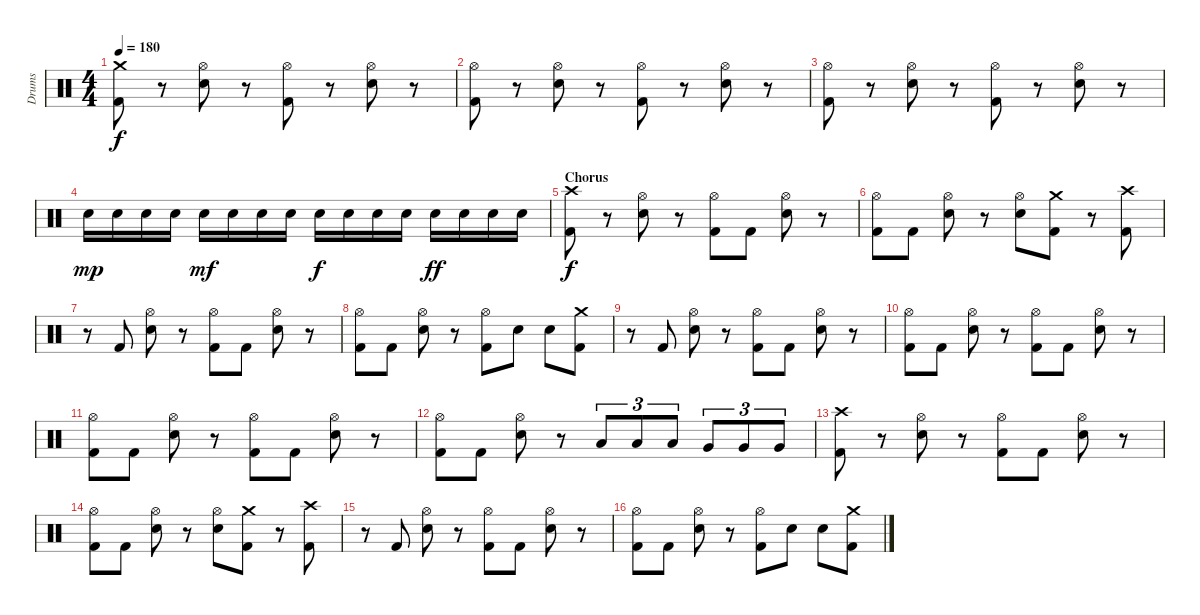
\track ("Drums" "Drums") {instrument percussion}
\staff {score}
\articulation defaults
\ts (4 4)
\tempo 180
\clef neutral
\ks c
("Crash medium (hit)" "Kick (hit) 2").8{dy f} r.8 ("Hi-Hat (open)" "Snare (hit) 2").8 r.8 ("Hi-Hat (open)" "Kick (hit) 2").8 r.8 ("Hi-Hat (open)" "Snare (hit) 2").8 r.8 |
("Hi-Hat (open)" "Kick (hit) 2").8 r.8 ("Hi-Hat (open)" "Snare (hit) 2").8 r.8 ("Hi-Hat (open)" "Kick (hit) 2").8 r.8 ("Hi-Hat (open)" "Snare (hit) 2").8 r.8 |
("Hi-Hat (open)" "Kick (hit) 2").8 r.8 ("Hi-Hat (open)" "Snare (hit) 2").8 r.8 ("Hi-Hat (open)" "Kick (hit) 2").8 r.8 ("Hi-Hat (open)" "Snare (hit) 2").8 r.8 |
"Snare (hit) 2".16{dy mp} "Snare (hit) 2".16 "Snare (hit) 2".16 "Snare (hit) 2".16 "Snare (hit) 2".16{dy mf} "Snare (hit) 2".16 "Snare (hit) 2".16 "Snare (hit) 2".16 "Snare (hit) 2".16{dy f} "Snare (hit) 2".16 "Snare (hit) 2".16 "Snare (hit) 2".16 "Snare (hit) 2".16{dy ff} "Snare (hit) 2".16 "Snare (hit) 2".16 "Snare (hit) 2".16 |
\section ("" "Chorus")
("Crash high (hit)" "Kick (hit) 2").8{dy f} r.8 ("Hi-Hat (open)" "Snare (hit) 2").8 r.8 ("Hi-Hat (open)" "Kick (hit) 2").8 "Kick (hit) 2".8 ("Hi-Hat (open)" "Snare (hit) 2").8 r.8 |
("Hi-Hat (open)" "Kick (hit) 2").8 "Kick (hit) 2".8 ("Hi-Hat (open)" "Snare (hit) 2").8 r.8 ("Hi-Hat (open)" "Snare (hit) 2").8 ("Crash medium (hit)" "Kick (hit) 2").8 r.8 ("Crash high (hit)" "Kick (hit) 2").8 |
r.8 "Kick (hit) 2".8 ("Hi-Hat (open)" "Snare (hit) 2").8 r.8 ("Hi-Hat (open)" "Kick (hit) 2").8 "Kick (hit) 2".8 ("Hi-Hat (open)" "Snare (hit) 2").8 r.8 |
("Hi-Hat (open)" "Kick (hit) 2").8 "Kick (hit) 2".8 ("Hi-Hat (open)" "Snare (hit) 2").8 r.8 ("Hi-Hat (open)" "Kick (hit) 2").8 "Snare (hit) 2".8 "Snare (hit) 2".8 ("Crash medium (hit)" "Kick (hit) 2").8 |
r.8 "Kick (hit) 2".8 ("Hi-Hat (open)" "Snare (hit) 2").8 r.8 ("Hi-Hat (open)" "Kick (hit) 2").8 "Kick (hit) 2".8 ("Hi-Hat (open)" "Snare (hit) 2").8 r.8 |
("Hi-Hat (open)" "Kick (hit) 2").8 "Kick (hit) 2".8 ("Hi-Hat (open)" "Snare (hit) 2").8 r.8 ("Hi-Hat (open)" "Kick (hit) 2").8 "Kick (hit) 2".8 ("Hi-Hat (open)" "Snare (hit) 2").8 r.8 |
("Hi-Hat (open)" "Kick (hit) 2").8 "Kick (hit) 2".8 ("Hi-Hat (open)" "Snare (hit) 2").8 r.8 ("Hi-Hat (open)" "Kick (hit) 2").8 "Kick (hit) 2".8 ("Hi-Hat (open)" "Snare (hit) 2").8 r.8 |
("Hi-Hat (open)" "Kick (hit) 2").8 "Kick (hit) 2".8 ("Hi-Hat (open)" "Snare (hit) 2").8 r.8 "Low Tom (hit)".8{tu (3 2)} "Low Tom (hit)".8{tu (3 2)} "Low Tom (hit)".8{tu (3 2)} "Very Low Tom (hit)".8{tu (3 2)} "Very Low Tom (hit)".8{tu (3 2)} "Very Low Tom (hit)".8{tu (3 2)} |
("Crash high (hit)" "Kick (hit) 2").8 r.8 ("Hi-Hat (open)" "Snare (hit) 2").8 r.8 ("Hi-Hat (open)" "Kick (hit) 2").8 "Kick (hit) 2".8 ("Hi-Hat (open)" "Snare (hit) 2").8 r.8 |
("Hi-Hat (open)" "Kick (hit) 2").8 "Kick (hit) 2".8 ("Hi-Hat (open)" "Snare (hit) 2").8 r.8 ("Hi-Hat (open)" "Snare (hit) 2").8 ("Crash medium (hit)" "Kick (hit) 2").8 r.8 ("Crash high (hit)" "Kick (hit) 2").8 |
r.8 "Kick (hit) 2".8 ("Hi-Hat (open)" "Snare (hit) 2").8 r.8 ("Hi-Hat (open)" "Kick (hit) 2").8 "Kick (hit) 2".8 ("Hi-Hat (open)" "Snare (hit) 2").8 r.8 |
("Hi-Hat (open)" "Kick (hit) 2").8 "Kick (hit) 2".8 ("Hi-Hat (open)" "Snare (hit) 2").8 r.8 ("Hi-Hat (open)" "Kick (hit) 2").8 "Snare (hit) 2".8 "Snare (hit) 2".8 ("Crash medium (hit)" "Kick (hit) 2").8
